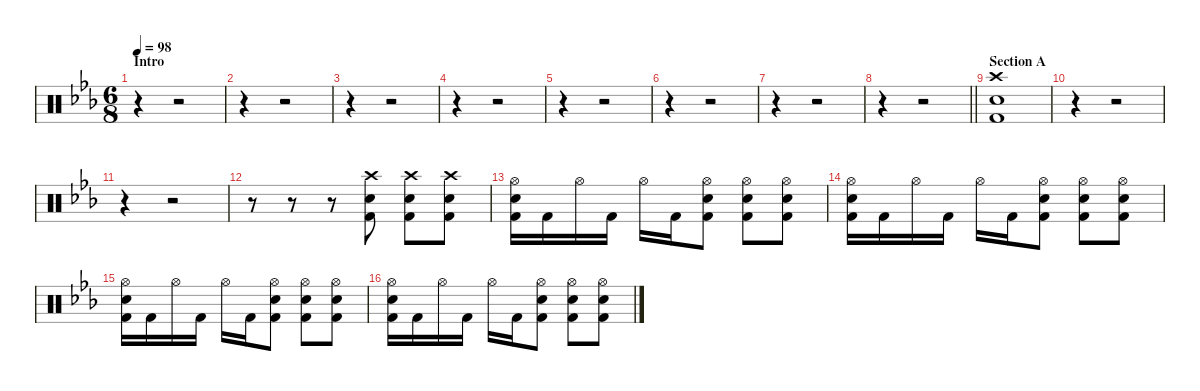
\defaultSystemsLayout 4
\hideDynamics
\bracketExtendMode nobrackets
\singleTrackTrackNamePolicy hidden
\multiTrackTrackNamePolicy hidden
\firstSystemTrackNameMode fullname
\firstSystemTrackNameOrientation horizontal
\otherSystemsTrackNameOrientation horizontal
\track ("Gene Hogland" "drm.") {instrument percussion}
\staff {score}
\articulation defaults
\ts (6 8)
\beaming (8 2 2 2 2)
\section ("" "Intro")
\tempo 98
\clef neutral
\ks eb
r.4{dy f beam Down} r.2{beam Down} |
r.4{beam Down} r.2{beam Down} |
r.4{beam Down} r.2{beam Down} |
r.4{beam Down} r.2{beam Down} |
r.4{beam Down} r.2{beam Down} |
r.4{beam Down} r.2{beam Down} |
r.4{beam Down} r.2{beam Down} |
\barLineRight lightlight
r.4{beam Down} r.2{beam Down} |
\section ("" "Section A")
("Crash high (hit)"{acc forcenatural} "Snare (hit) 2"{acc forcenatural} "Kick (hit) 2"{acc forcenatural}).1{beam Down} |
r.4{beam Down} r.2{beam Down} |
r.4{beam Down} r.2{beam Down} |
r.8{beam Down} r.8{beam Down} r.8{beam Down} ("Crash high (hit)"{acc forcenatural} "Snare (hit) 2"{acc forcenatural} "Kick (hit) 2"{acc forcenatural}).8{beam Down} ("Crash high (hit)"{acc forcenatural} "Snare (hit) 2"{acc forcenatural} "Kick (hit) 2"{acc forcenatural}).8{beam Down} ("Crash high (hit)"{acc forcenatural} "Snare (hit) 2"{acc forcenatural} "Kick (hit) 2"{acc forcenatural}).8{beam Down} |
("Hi-Hat (open)"{acc forcenatural} "Snare (hit) 2"{acc forcenatural} "Kick (hit) 2"{acc forcenatural}).16{beam Down} "Kick (hit) 2"{acc forcenatural}.16{beam Down} "Hi-Hat (open)"{acc forcenatural}.16{beam Down} "Kick (hit) 2"{acc forcenatural}.16{beam Down} "Hi-Hat (open)"{acc forcenatural}.16{beam Down} "Kick (hit) 2"{acc forcenatural}.16{beam Down} ("Hi-Hat (open)"{acc forcenatural} "Snare (hit) 2"{acc forcenatural} "Kick (hit) 2"{acc forcenatural}).8{beam Down} ("Hi-Hat (open)"{acc forcenatural} "Snare (hit) 2"{acc forcenatural} "Kick (hit) 2"{acc forcenatural}).8{beam Down} ("Hi-Hat (open)"{acc forcenatural} "Snare (hit) 2"{acc forcenatural} "Kick (hit) 2"{acc forcenatural}).8{beam Down} |
("Hi-Hat (open)"{acc forcenatural} "Snare (hit) 2"{acc forcenatural} "Kick (hit) 2"{acc forcenatural}).16{beam Down} "Kick (hit) 2"{acc forcenatural}.16{beam Down} "Hi-Hat (open)"{acc forcenatural}.16{beam Down} "Kick (hit) 2"{acc forcenatural}.16{beam Down} "Hi-Hat (open)"{acc forcenatural}.16{beam Down} "Kick (hit) 2"{acc forcenatural}.16{beam Down} ("Hi-Hat (open)"{acc forcenatural} "Snare (hit) 2"{acc forcenatural} "Kick (hit) 2"{acc forcenatural}).8{beam Down} ("Hi-Hat (open)"{acc forcenatural} "Snare (hit) 2"{acc forcenatural} "Kick (hit) 2"{acc forcenatural}).8{beam Down} ("Hi-Hat (open)"{acc forcenatural} "Snare (hit) 2"{acc forcenatural} "Kick (hit) 2"{acc forcenatural}).8{beam Down} |
("Hi-Hat (open)"{acc forcenatural} "Snare (hit) 2"{acc forcenatural} "Kick (hit) 2"{acc forcenatural}).16{beam Down} "Kick (hit) 2"{acc forcenatural}.16{beam Down} "Hi-Hat (open)"{acc forcenatural}.16{beam Down} "Kick (hit) 2"{acc forcenatural}.16{beam Down} "Hi-Hat (open)"{acc forcenatural}.16{beam Down} "Kick (hit) 2"{acc forcenatural}.16{beam Down} ("Hi-Hat (open)"{acc forcenatural} "Snare (hit) 2"{acc forcenatural} "Kick (hit) 2"{acc forcenatural}).8{beam Down} ("Hi-Hat (open)"{acc forcenatural} "Snare (hit) 2"{acc forcenatural} "Kick (hit) 2"{acc forcenatural}).8{beam Down} ("Hi-Hat (open)"{acc forcenatural} "Snare (hit) 2"{acc forcenatural} "Kick (hit) 2"{acc forcenatural}).8{beam Down} |
("Hi-Hat (open)"{acc forcenatural} "Snare (hit) 2"{acc forcenatural} "Kick (hit) 2"{acc forcenatural}).16{beam Down} "Kick (hit) 2"{acc forcenatural}.16{beam Down} "Hi-Hat (open)"{acc forcenatural}.16{beam Down} "Kick (hit) 2"{acc forcenatural}.16{beam Down} "Hi-Hat (open)"{acc forcenatural}.16{beam Down} "Kick (hit) 2"{acc forcenatural}.16{beam Down} ("Hi-Hat (open)"{acc forcenatural} "Snare (hit) 2"{acc forcenatural} "Kick (hit) 2"{acc forcenatural}).8{beam Down} ("Hi-Hat (open)"{acc forcenatural} "Snare (hit) 2"{acc forcenatural} "Kick (hit) 2"{acc forcenatural}).8{beam Down} ("Hi-Hat (open)"{acc forcenatural} "Snare (hit) 2"{acc forcenatural} "Kick (hit) 2"{acc forcenatural}).8{beam Down}
